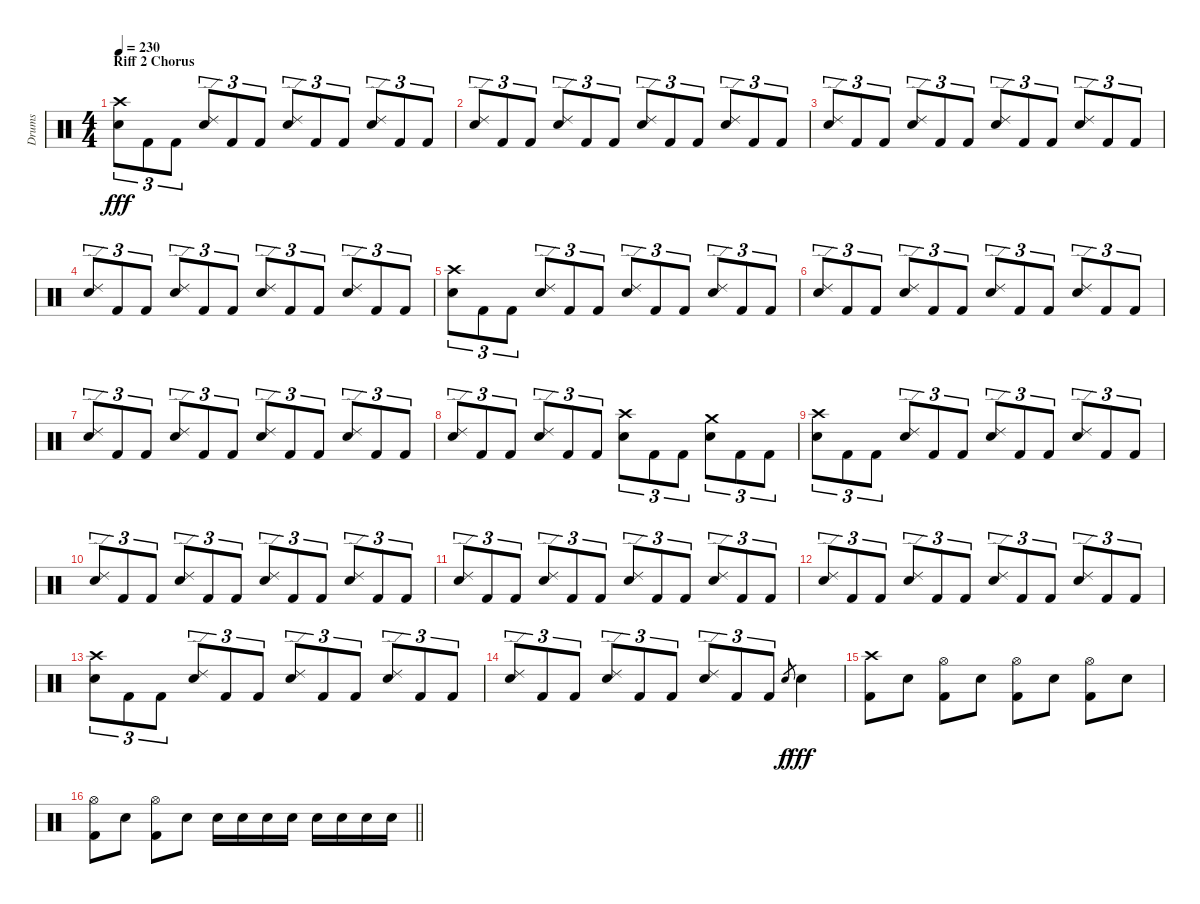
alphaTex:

\track ("Drums" "Drums") {instrument percussion}
\staff {score}
\articulation defaults
\ts (4 4)
\section ("" "Riff 2 Chorus")
\tempo 230
\clef neutral
\ks c
("Crash high (hit)" "Electric Snare (hit)").8{tu (3 2) dy fff} "Kick (hit) 2".8{tu (3 2)} "Kick (hit) 2".8{tu (3 2)} ("Ride (edge) 2" "Electric Snare (hit)").8{tu (3 2)} "Kick (hit) 2".8{tu (3 2)} "Kick (hit) 2".8{tu (3 2)} ("Ride (edge) 2" "Electric Snare (hit)").8{tu (3 2)} "Kick (hit) 2".8{tu (3 2)} "Kick (hit) 2".8{tu (3 2)} ("Ride (edge) 2" "Electric Snare (hit)").8{tu (3 2)} "Kick (hit) 2".8{tu (3 2)} "Kick (hit) 2".8{tu (3 2)} |
("Ride (edge) 2" "Electric Snare (hit)").8{tu (3 2)} "Kick (hit) 2".8{tu (3 2)} "Kick (hit) 2".8{tu (3 2)} ("Ride (edge) 2" "Electric Snare (hit)").8{tu (3 2)} "Kick (hit) 2".8{tu (3 2)} "Kick (hit) 2".8{tu (3 2)} ("Ride (edge) 2" "Electric Snare (hit)").8{tu (3 2)} "Kick (hit) 2".8{tu (3 2)} "Kick (hit) 2".8{tu (3 2)} ("Ride (edge) 2" "Electric Snare (hit)").8{tu (3 2)} "Kick (hit) 2".8{tu (3 2)} "Kick (hit) 2".8{tu (3 2)} |
("Ride (edge) 2" "Electric Snare (hit)").8{tu (3 2)} "Kick (hit) 2".8{tu (3 2)} "Kick (hit) 2".8{tu (3 2)} ("Ride (edge) 2" "Electric Snare (hit)").8{tu (3 2)} "Kick (hit) 2".8{tu (3 2)} "Kick (hit) 2".8{tu (3 2)} ("Ride (edge) 2" "Electric Snare (hit)").8{tu (3 2)} "Kick (hit) 2".8{tu (3 2)} "Kick (hit) 2".8{tu (3 2)} ("Ride (edge) 2" "Electric Snare (hit)").8{tu (3 2)} "Kick (hit) 2".8{tu (3 2)} "Kick (hit) 2".8{tu (3 2)} |
("Ride (edge) 2" "Electric Snare (hit)").8{tu (3 2)} "Kick (hit) 2".8{tu (3 2)} "Kick (hit) 2".8{tu (3 2)} ("Ride (edge) 2" "Electric Snare (hit)").8{tu (3 2)} "Kick (hit) 2".8{tu (3 2)} "Kick (hit) 2".8{tu (3 2)} ("Ride (edge) 2" "Electric Snare (hit)").8{tu (3 2)} "Kick (hit) 2".8{tu (3 2)} "Kick (hit) 2".8{tu (3 2)} ("Ride (edge) 2" "Electric Snare (hit)").8{tu (3 2)} "Kick (hit) 2".8{tu (3 2)} "Kick (hit) 2".8{tu (3 2)} |
("Crash high (hit)" "Electric Snare (hit)").8{tu (3 2)} "Kick (hit) 2".8{tu (3 2)} "Kick (hit) 2".8{tu (3 2)} ("Ride (edge) 2" "Electric Snare (hit)").8{tu (3 2)} "Kick (hit) 2".8{tu (3 2)} "Kick (hit) 2".8{tu (3 2)} ("Ride (edge) 2" "Electric Snare (hit)").8{tu (3 2)} "Kick (hit) 2".8{tu (3 2)} "Kick (hit) 2".8{tu (3 2)} ("Ride (edge) 2" "Electric Snare (hit)").8{tu (3 2)} "Kick (hit) 2".8{tu (3 2)} "Kick (hit) 2".8{tu (3 2)} |
("Ride (edge) 2" "Electric Snare (hit)").8{tu (3 2)} "Kick (hit) 2".8{tu (3 2)} "Kick (hit) 2".8{tu (3 2)} ("Ride (edge) 2" "Electric Snare (hit)").8{tu (3 2)} "Kick (hit) 2".8{tu (3 2)} "Kick (hit) 2".8{tu (3 2)} ("Ride (edge) 2" "Electric Snare (hit)").8{tu (3 2)} "Kick (hit) 2".8{tu (3 2)} "Kick (hit) 2".8{tu (3 2)} ("Ride (edge) 2" "Electric Snare (hit)").8{tu (3 2)} "Kick (hit) 2".8{tu (3 2)} "Kick (hit) 2".8{tu (3 2)} |
("Ride (edge) 2" "Electric Snare (hit)").8{tu (3 2)} "Kick (hit) 2".8{tu (3 2)} "Kick (hit) 2".8{tu (3 2)} ("Ride (edge) 2" "Electric Snare (hit)").8{tu (3 2)} "Kick (hit) 2".8{tu (3 2)} "Kick (hit) 2".8{tu (3 2)} ("Ride (edge) 2" "Electric Snare (hit)").8{tu (3 2)} "Kick (hit) 2".8{tu (3 2)} "Kick (hit) 2".8{tu (3 2)} ("Ride (edge) 2" "Electric Snare (hit)").8{tu (3 2)} "Kick (hit) 2".8{tu (3 2)} "Kick (hit) 2".8{tu (3 2)} |
("Ride (edge) 2" "Electric Snare (hit)").8{tu (3 2)} "Kick (hit) 2".8{tu (3 2)} "Kick (hit) 2".8{tu (3 2)} ("Ride (edge) 2" "Electric Snare (hit)").8{tu (3 2)} "Kick (hit) 2".8{tu (3 2)} "Kick (hit) 2".8{tu (3 2)} ("Crash high (hit)" "Electric Snare (hit)").8{tu (3 2)} "Kick (hit) 2".8{tu (3 2)} "Kick (hit) 2".8{tu (3 2)} ("Crash medium (hit)" "Electric Snare (hit)").8{tu (3 2)} "Kick (hit) 2".8{tu (3 2)} "Kick (hit) 2".8{tu (3 2)} |
("Crash high (hit)" "Electric Snare (hit)").8{tu (3 2)} "Kick (hit) 2".8{tu (3 2)} "Kick (hit) 2".8{tu (3 2)} ("Ride (edge) 2" "Electric Snare (hit)").8{tu (3 2)} "Kick (hit) 2".8{tu (3 2)} "Kick (hit) 2".8{tu (3 2)} ("Ride (edge) 2" "Electric Snare (hit)").8{tu (3 2)} "Kick (hit) 2".8{tu (3 2)} "Kick (hit) 2".8{tu (3 2)} ("Ride (edge) 2" "Electric Snare (hit)").8{tu (3 2)} "Kick (hit) 2".8{tu (3 2)} "Kick (hit) 2".8{tu (3 2)} |
("Ride (edge) 2" "Electric Snare (hit)").8{tu (3 2)} "Kick (hit) 2".8{tu (3 2)} "Kick (hit) 2".8{tu (3 2)} ("Ride (edge) 2" "Electric Snare (hit)").8{tu (3 2)} "Kick (hit) 2".8{tu (3 2)} "Kick (hit) 2".8{tu (3 2)} ("Ride (edge) 2" "Electric Snare (hit)").8{tu (3 2)} "Kick (hit) 2".8{tu (3 2)} "Kick (hit) 2".8{tu (3 2)} ("Ride (edge) 2" "Electric Snare (hit)").8{tu (3 2)} "Kick (hit) 2".8{tu (3 2)} "Kick (hit) 2".8{tu (3 2)} |
("Ride (edge) 2" "Electric Snare (hit)").8{tu (3 2)} "Kick (hit) 2".8{tu (3 2)} "Kick (hit) 2".8{tu (3 2)} ("Ride (edge) 2" "Electric Snare (hit)").8{tu (3 2)} "Kick (hit) 2".8{tu (3 2)} "Kick (hit) 2".8{tu (3 2)} ("Ride (edge) 2" "Electric Snare (hit)").8{tu (3 2)} "Kick (hit) 2".8{tu (3 2)} "Kick (hit) 2".8{tu (3 2)} ("Ride (edge) 2" "Electric Snare (hit)").8{tu (3 2)} "Kick (hit) 2".8{tu (3 2)} "Kick (hit) 2".8{tu (3 2)} |
("Ride (edge) 2" "Electric Snare (hit)").8{tu (3 2)} "Kick (hit) 2".8{tu (3 2)} "Kick (hit) 2".8{tu (3 2)} ("Ride (edge) 2" "Electric Snare (hit)").8{tu (3 2)} "Kick (hit) 2".8{tu (3 2)} "Kick (hit) 2".8{tu (3 2)} ("Ride (edge) 2" "Electric Snare (hit)").8{tu (3 2)} "Kick (hit) 2".8{tu (3 2)} "Kick (hit) 2".8{tu (3 2)} ("Ride (edge) 2" "Electric Snare (hit)").8{tu (3 2)} "Kick (hit) 2".8{tu (3 2)} "Kick (hit) 2".8{tu (3 2)} |
("Crash high (hit)" "Electric Snare (hit)").8{tu (3 2)} "Kick (hit) 2".8{tu (3 2)} "Kick (hit) 2".8{tu (3 2)} ("Ride (edge) 2" "Electric Snare (hit)").8{tu (3 2)} "Kick (hit) 2".8{tu (3 2)} "Kick (hit) 2".8{tu (3 2)} ("Ride (edge) 2" "Electric Snare (hit)").8{tu (3 2)} "Kick (hit) 2".8{tu (3 2)} "Kick (hit) 2".8{tu (3 2)} ("Ride (edge) 2" "Electric Snare (hit)").8{tu (3 2)} "Kick (hit) 2".8{tu (3 2)} "Kick (hit) 2".8{tu (3 2)} |
("Ride (edge) 2" "Electric Snare (hit)").8{tu (3 2)} "Kick (hit) 2".8{tu (3 2)} "Kick (hit) 2".8{tu (3 2)} ("Ride (edge) 2" "Electric Snare (hit)").8{tu (3 2)} "Kick (hit) 2".8{tu (3 2)} "Kick (hit) 2".8{tu (3 2)} ("Ride (edge) 2" "Electric Snare (hit)").8{tu (3 2)} "Kick (hit) 2".8{tu (3 2)} "Kick (hit) 2".8{tu (3 2)} "Electric Snare (hit)".8{gr dy f} "Electric Snare (hit)".4{dy fff} |
("Crash high (hit)" "Kick (hit) 2").8 "Electric Snare (hit)".8 ("Hi-Hat (open)" "Kick (hit) 2").8 "Electric Snare (hit)".8 ("Hi-Hat (open)" "Kick (hit) 2").8 "Electric Snare (hit)".8 ("Hi-Hat (open)" "Kick (hit) 2").8 "Electric Snare (hit)".8 |
\barLineRight lightlight
("Hi-Hat (open)" "Kick (hit) 2").8 "Electric Snare (hit)".8 ("Hi-Hat (open)" "Kick (hit) 2").8 "Electric Snare (hit)".8 "Electric Snare (hit)".16 "Electric Snare (hit)".16 "Electric Snare (hit)".16 "Electric Snare (hit)".16 "Electric Snare (hit)".16 "Electric Snare (hit)".16 "Electric Snare (hit)".16 "Electric Snare (hit)".16
